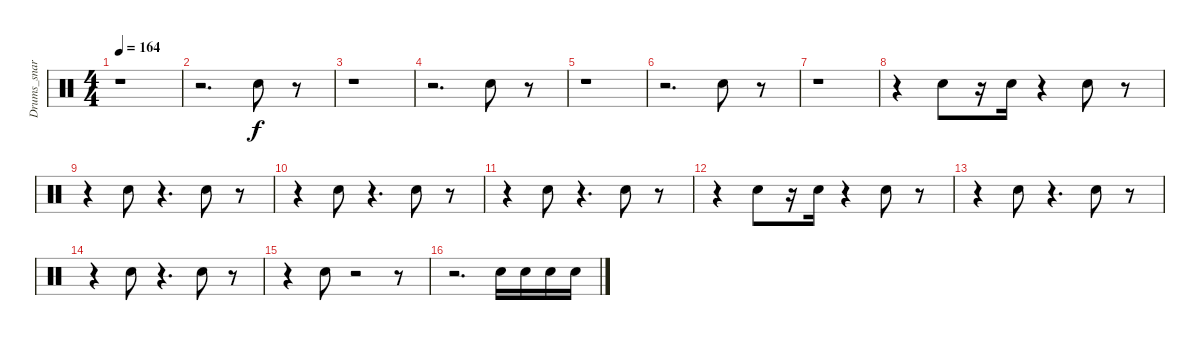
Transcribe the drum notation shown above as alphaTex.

\track ("Drums_snare&tom" "Drums_snar") {instrument percussion}
\staff {score}
\articulation defaults
\ts (4 4)
\tempo 164
\clef neutral
\ks c
r.1{dy f} |
r.2{d} "Snare (hit) 2".8 r.8 |
r.1 |
r.2{d} "Snare (hit) 2".8 r.8 |
r.1 |
r.2{d} "Snare (hit) 2".8 r.8 |
r.1 |
r.4 "Snare (hit) 2".8 r.16 "Snare (hit) 2".16 r.4 "Snare (hit) 2".8 r.8 |
r.4 "Snare (hit) 2".8 r.4{d} "Snare (hit) 2".8 r.8 |
r.4 "Snare (hit) 2".8 r.4{d} "Snare (hit) 2".8 r.8 |
r.4 "Snare (hit) 2".8 r.4{d} "Snare (hit) 2".8 r.8 |
r.4 "Snare (hit) 2".8 r.16 "Snare (hit) 2".16 r.4 "Snare (hit) 2".8 r.8 |
r.4 "Snare (hit) 2".8 r.4{d} "Snare (hit) 2".8 r.8 |
r.4 "Snare (hit) 2".8 r.4{d} "Snare (hit) 2".8 r.8 |
r.4 "Snare (hit) 2".8 r.2 r.8 |
r.2{d} "Snare (hit) 2".16 "Snare (hit) 2".16 "Snare (hit) 2".16 "Snare (hit) 2".16
